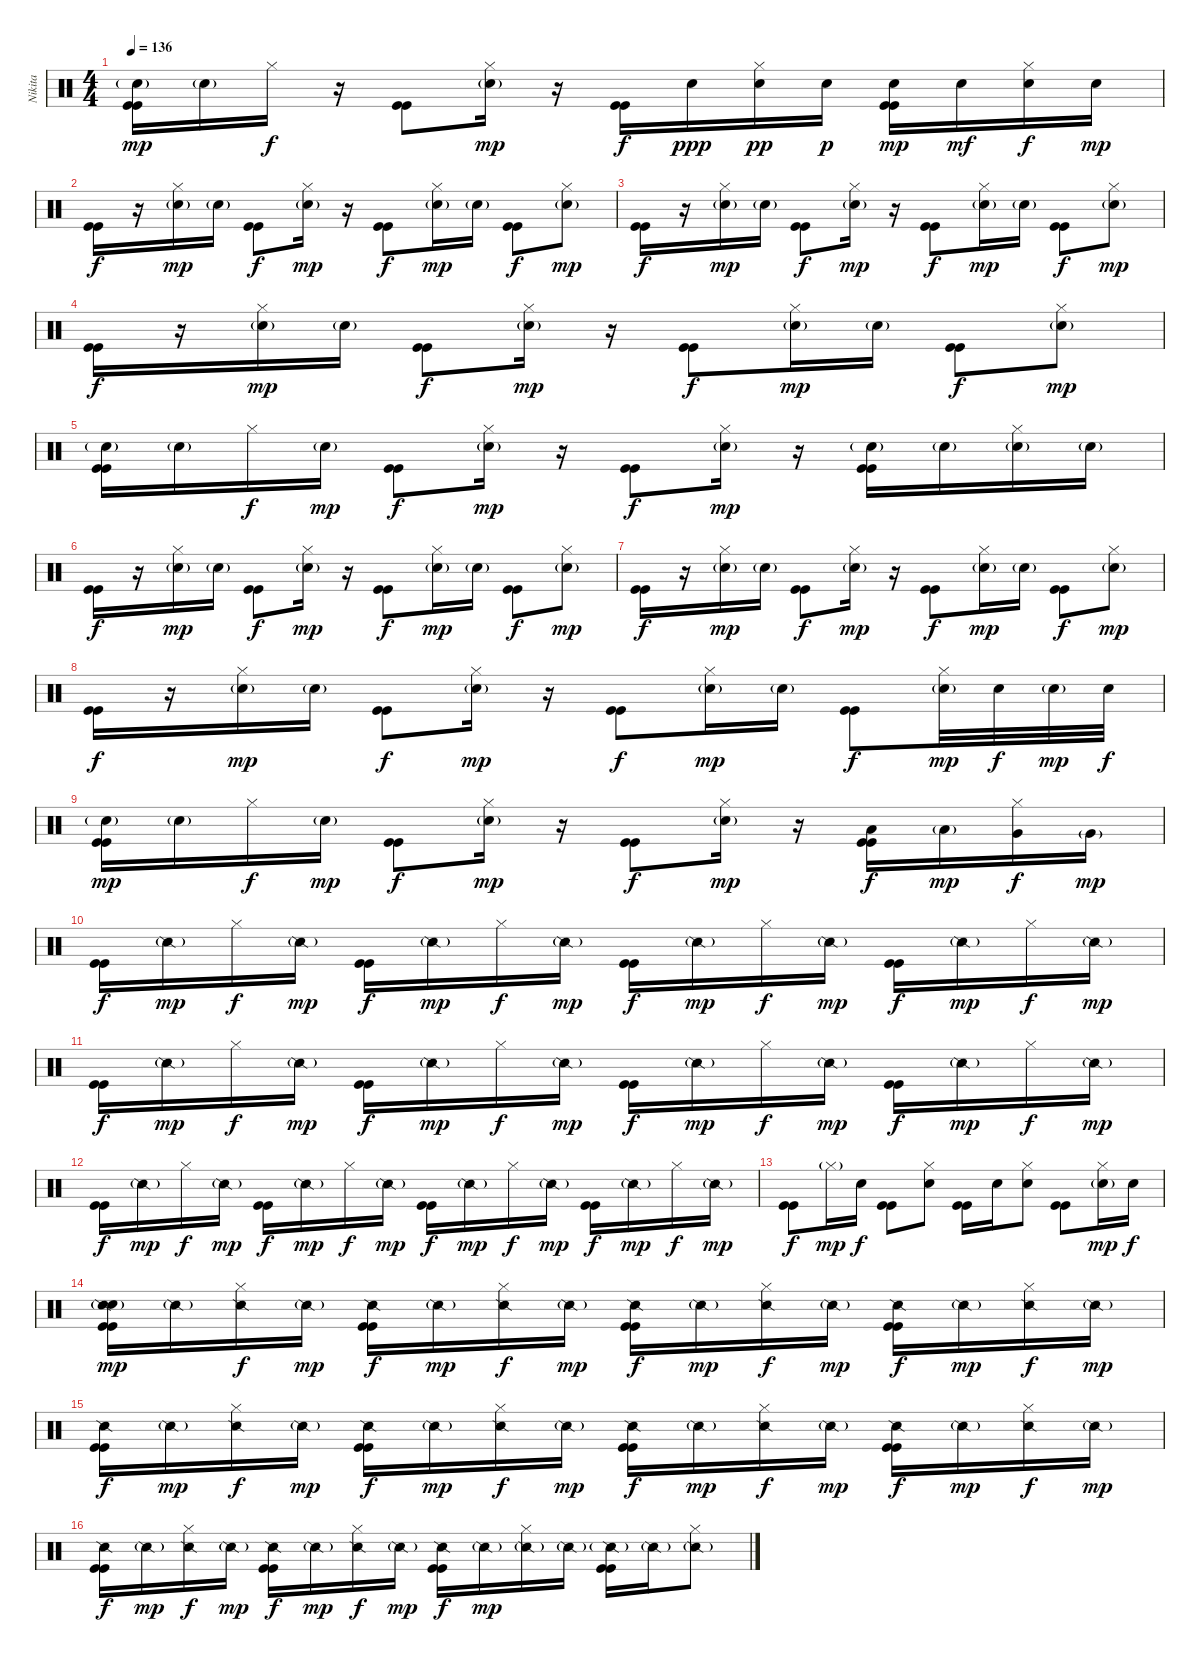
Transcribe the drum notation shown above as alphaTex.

\track ("Nikita" "Nikita") {instrument percussion}
\staff {score}
\articulation defaults
\ts (4 4)
\tempo 136
\clef neutral
\ks c
("Kick (hit)" "Kick (hit)" "Snare (hit) 2"{g}).16{dy mp} "Snare (hit) 2"{g}.16 "Hi-Hat (closed)".16{dy f} r.16 ("Kick (hit)" "Kick (hit)").8 ("Hi-Hat (closed)" "Snare (hit) 2"{g}).16{dy mp} r.16 ("Kick (hit)" "Kick (hit)").16{dy f} "Snare (hit) 2".16{dy ppp} ("Hi-Hat (closed)" "Snare (hit) 2").16{dy pp} "Snare (hit) 2".16{dy p} ("Kick (hit)" "Kick (hit)" "Snare (hit) 2").16{dy mp} "Snare (hit) 2".16{dy mf} ("Hi-Hat (closed)" "Snare (hit) 2").16{dy f} "Snare (hit) 2".16{dy mp} |
("Kick (hit)" "Kick (hit)").16{dy f} r.16 ("Hi-Hat (closed)" "Snare (hit) 2"{g}).16{dy mp} "Snare (hit) 2"{g}.16 ("Kick (hit)" "Kick (hit)").8{dy f} ("Hi-Hat (closed)" "Snare (hit) 2"{g}).16{dy mp} r.16 ("Kick (hit)" "Kick (hit)").8{dy f} ("Hi-Hat (closed)" "Snare (hit) 2"{g}).16{dy mp} "Snare (hit) 2"{g}.16 ("Kick (hit)" "Kick (hit)").8{dy f} ("Hi-Hat (closed)" "Snare (hit) 2"{g}).8{dy mp} |
("Kick (hit)" "Kick (hit)").16{dy f} r.16 ("Hi-Hat (closed)" "Snare (hit) 2"{g}).16{dy mp} "Snare (hit) 2"{g}.16 ("Kick (hit)" "Kick (hit)").8{dy f} ("Hi-Hat (closed)" "Snare (hit) 2"{g}).16{dy mp} r.16 ("Kick (hit)" "Kick (hit)").8{dy f} ("Hi-Hat (closed)" "Snare (hit) 2"{g}).16{dy mp} "Snare (hit) 2"{g}.16 ("Kick (hit)" "Kick (hit)").8{dy f} ("Hi-Hat (closed)" "Snare (hit) 2"{g}).8{dy mp} |
("Kick (hit)" "Kick (hit)").16{dy f} r.16 ("Hi-Hat (closed)" "Snare (hit) 2"{g}).16{dy mp} "Snare (hit) 2"{g}.16 ("Kick (hit)" "Kick (hit)").8{dy f} ("Hi-Hat (closed)" "Snare (hit) 2"{g}).16{dy mp} r.16 ("Kick (hit)" "Kick (hit)").8{dy f} ("Hi-Hat (closed)" "Snare (hit) 2"{g}).16{dy mp} "Snare (hit) 2"{g}.16 ("Kick (hit)" "Kick (hit)").8{dy f} ("Hi-Hat (closed)" "Snare (hit) 2"{g}).8{dy mp} |
("Kick (hit)" "Kick (hit)" "Snare (hit) 2"{g}).16 "Snare (hit) 2"{g}.16 "Hi-Hat (closed)".16{dy f} "Snare (hit) 2"{g}.16{dy mp} ("Kick (hit)" "Kick (hit)").8{dy f} ("Hi-Hat (closed)" "Snare (hit) 2"{g}).16{dy mp} r.16 ("Kick (hit)" "Kick (hit)").8{dy f} ("Hi-Hat (closed)" "Snare (hit) 2"{g}).16{dy mp} r.16 ("Kick (hit)" "Kick (hit)" "Snare (hit) 2"{g}).16 "Snare (hit) 2"{g}.16 ("Hi-Hat (closed)" "Snare (hit) 2"{g}).16 "Snare (hit) 2"{g}.16 |
("Kick (hit)" "Kick (hit)").16{dy f} r.16 ("Hi-Hat (closed)" "Snare (hit) 2"{g}).16{dy mp} "Snare (hit) 2"{g}.16 ("Kick (hit)" "Kick (hit)").8{dy f} ("Hi-Hat (closed)" "Snare (hit) 2"{g}).16{dy mp} r.16 ("Kick (hit)" "Kick (hit)").8{dy f} ("Hi-Hat (closed)" "Snare (hit) 2"{g}).16{dy mp} "Snare (hit) 2"{g}.16 ("Kick (hit)" "Kick (hit)").8{dy f} ("Hi-Hat (closed)" "Snare (hit) 2"{g}).8{dy mp} |
("Kick (hit)" "Kick (hit)").16{dy f} r.16 ("Hi-Hat (closed)" "Snare (hit) 2"{g}).16{dy mp} "Snare (hit) 2"{g}.16 ("Kick (hit)" "Kick (hit)").8{dy f} ("Hi-Hat (closed)" "Snare (hit) 2"{g}).16{dy mp} r.16 ("Kick (hit)" "Kick (hit)").8{dy f} ("Hi-Hat (closed)" "Snare (hit) 2"{g}).16{dy mp} "Snare (hit) 2"{g}.16 ("Kick (hit)" "Kick (hit)").8{dy f} ("Hi-Hat (closed)" "Snare (hit) 2"{g}).8{dy mp} |
("Kick (hit)" "Kick (hit)").16{dy f} r.16 ("Hi-Hat (closed)" "Snare (hit) 2"{g}).16{dy mp} "Snare (hit) 2"{g}.16 ("Kick (hit)" "Kick (hit)").8{dy f} ("Hi-Hat (closed)" "Snare (hit) 2"{g}).16{dy mp} r.16 ("Kick (hit)" "Kick (hit)").8{dy f} ("Hi-Hat (closed)" "Snare (hit) 2"{g}).16{dy mp} "Snare (hit) 2"{g}.16 ("Kick (hit)" "Kick (hit)").8{dy f} ("Hi-Hat (closed)" "Snare (hit) 2"{g}).32{dy mp} "Snare (hit) 2".32{dy f} "Snare (hit) 2"{g}.32{dy mp} "Snare (hit) 2".32{dy f} |
("Kick (hit)" "Kick (hit)" "Snare (hit) 2"{g}).16{dy mp} "Snare (hit) 2"{g}.16 "Hi-Hat (closed)".16{dy f} "Snare (hit) 2"{g}.16{dy mp} ("Kick (hit)" "Kick (hit)").8{dy f} ("Hi-Hat (closed)" "Snare (hit) 2"{g}).16{dy mp} r.16 ("Kick (hit)" "Kick (hit)").8{dy f} ("Hi-Hat (closed)" "Snare (hit) 2"{g}).16{dy mp} r.16 ("Kick (hit)" "Kick (hit)" "Low Tom (hit)").16{dy f} "Low Tom (hit)"{g}.16{dy mp} ("Hi-Hat (closed)" "Very Low Tom (hit)").16{dy f} "Very Low Tom (hit)"{g}.16{dy mp} |
("Kick (hit)" "Kick (hit)").16{dy f} "Snare (side stick) 2"{g}.16{dy mp} "Hi-Hat (closed)".16{dy f} "Snare (side stick) 2"{g}.16{dy mp} ("Kick (hit)" "Kick (hit)").16{dy f} "Snare (side stick) 2"{g}.16{dy mp} "Hi-Hat (closed)".16{dy f} "Snare (side stick) 2"{g}.16{dy mp} ("Kick (hit)" "Kick (hit)").16{dy f} "Snare (side stick) 2"{g}.16{dy mp} "Hi-Hat (closed)".16{dy f} "Snare (side stick) 2"{g}.16{dy mp} ("Kick (hit)" "Kick (hit)").16{dy f} "Snare (side stick) 2"{g}.16{dy mp} "Hi-Hat (closed)".16{dy f} "Snare (side stick) 2"{g}.16{dy mp} |
("Kick (hit)" "Kick (hit)").16{dy f} "Snare (side stick) 2"{g}.16{dy mp} "Hi-Hat (closed)".16{dy f} "Snare (side stick) 2"{g}.16{dy mp} ("Kick (hit)" "Kick (hit)").16{dy f} "Snare (side stick) 2"{g}.16{dy mp} "Hi-Hat (closed)".16{dy f} "Snare (side stick) 2"{g}.16{dy mp} ("Kick (hit)" "Kick (hit)").16{dy f} "Snare (side stick) 2"{g}.16{dy mp} "Hi-Hat (closed)".16{dy f} "Snare (side stick) 2"{g}.16{dy mp} ("Kick (hit)" "Kick (hit)").16{dy f} "Snare (side stick) 2"{g}.16{dy mp} "Hi-Hat (closed)".16{dy f} "Snare (side stick) 2"{g}.16{dy mp} |
("Kick (hit)" "Kick (hit)").16{dy f} "Snare (side stick) 2"{g}.16{dy mp} "Hi-Hat (closed)".16{dy f} "Snare (side stick) 2"{g}.16{dy mp} ("Kick (hit)" "Kick (hit)").16{dy f} "Snare (side stick) 2"{g}.16{dy mp} "Hi-Hat (closed)".16{dy f} "Snare (side stick) 2"{g}.16{dy mp} ("Kick (hit)" "Kick (hit)").16{dy f} "Snare (side stick) 2"{g}.16{dy mp} "Hi-Hat (closed)".16{dy f} "Snare (side stick) 2"{g}.16{dy mp} ("Kick (hit)" "Kick (hit)").16{dy f} "Snare (side stick) 2"{g}.16{dy mp} "Hi-Hat (closed)".16{dy f} "Snare (side stick) 2"{g}.16{dy mp} |
("Kick (hit)" "Kick (hit)").8{dy f} "Hi-Hat (closed)"{g}.16{dy mp} "Snare (hit) 2".16{dy f} ("Kick (hit)" "Kick (hit)").8 ("Hi-Hat (closed)" "Snare (hit) 2").8 ("Kick (hit)" "Kick (hit)").16 "Snare (hit) 2".16 ("Hi-Hat (closed)" "Snare (hit) 2").8 ("Kick (hit)" "Kick (hit)").8 ("Hi-Hat (closed)" "Snare (hit) 2"{g}).16{dy mp} "Snare (hit) 2".16{dy f} |
("Kick (hit)" "Kick (hit)" "Snare (hit) 2" "Snare (side stick) 2"{g}).16{dy mp} "Snare (side stick) 2"{g}.16 ("Hi-Hat (closed)" "Snare (side stick) 2").16{dy f} "Snare (side stick) 2"{g}.16{dy mp} ("Kick (hit)" "Kick (hit)" "Snare (side stick) 2").16{dy f} "Snare (side stick) 2"{g}.16{dy mp} ("Hi-Hat (closed)" "Snare (side stick) 2").16{dy f} "Snare (side stick) 2"{g}.16{dy mp} ("Kick (hit)" "Kick (hit)" "Snare (side stick) 2").16{dy f} "Snare (side stick) 2"{g}.16{dy mp} ("Hi-Hat (closed)" "Snare (side stick) 2").16{dy f} "Snare (side stick) 2"{g}.16{dy mp} ("Kick (hit)" "Kick (hit)" "Snare (side stick) 2").16{dy f} "Snare (side stick) 2"{g}.16{dy mp} ("Hi-Hat (closed)" "Snare (side stick) 2").16{dy f} "Snare (side stick) 2"{g}.16{dy mp} |
("Kick (hit)" "Kick (hit)" "Snare (side stick) 2").16{dy f} "Snare (side stick) 2"{g}.16{dy mp} ("Hi-Hat (closed)" "Snare (side stick) 2").16{dy f} "Snare (side stick) 2"{g}.16{dy mp} ("Kick (hit)" "Kick (hit)" "Snare (side stick) 2").16{dy f} "Snare (side stick) 2"{g}.16{dy mp} ("Hi-Hat (closed)" "Snare (side stick) 2").16{dy f} "Snare (side stick) 2"{g}.16{dy mp} ("Kick (hit)" "Kick (hit)" "Snare (side stick) 2").16{dy f} "Snare (side stick) 2"{g}.16{dy mp} ("Hi-Hat (closed)" "Snare (side stick) 2").16{dy f} "Snare (side stick) 2"{g}.16{dy mp} ("Kick (hit)" "Kick (hit)" "Snare (side stick) 2").16{dy f} "Snare (side stick) 2"{g}.16{dy mp} ("Hi-Hat (closed)" "Snare (side stick) 2").16{dy f} "Snare (side stick) 2"{g}.16{dy mp} |
("Kick (hit)" "Kick (hit)" "Snare (side stick) 2").16{dy f} "Snare (side stick) 2"{g}.16{dy mp} ("Hi-Hat (closed)" "Snare (side stick) 2").16{dy f} "Snare (side stick) 2"{g}.16{dy mp} ("Kick (hit)" "Kick (hit)" "Snare (side stick) 2").16{dy f} "Snare (side stick) 2"{g}.16{dy mp} ("Hi-Hat (closed)" "Snare (side stick) 2").16{dy f} "Snare (side stick) 2"{g}.16{dy mp} ("Kick (hit)" "Kick (hit)" "Snare (side stick) 2").16{dy f} "Snare (side stick) 2"{g}.16{dy mp} ("Hi-Hat (closed)" "Snare (side stick) 2"{g}).16 "Snare (side stick) 2"{g}.16 ("Kick (hit)" "Kick (hit)" "Snare (side stick) 2"{g}).16 "Snare (side stick) 2"{g}.16 ("Hi-Hat (closed)" "Snare (side stick) 2"{g}).8
